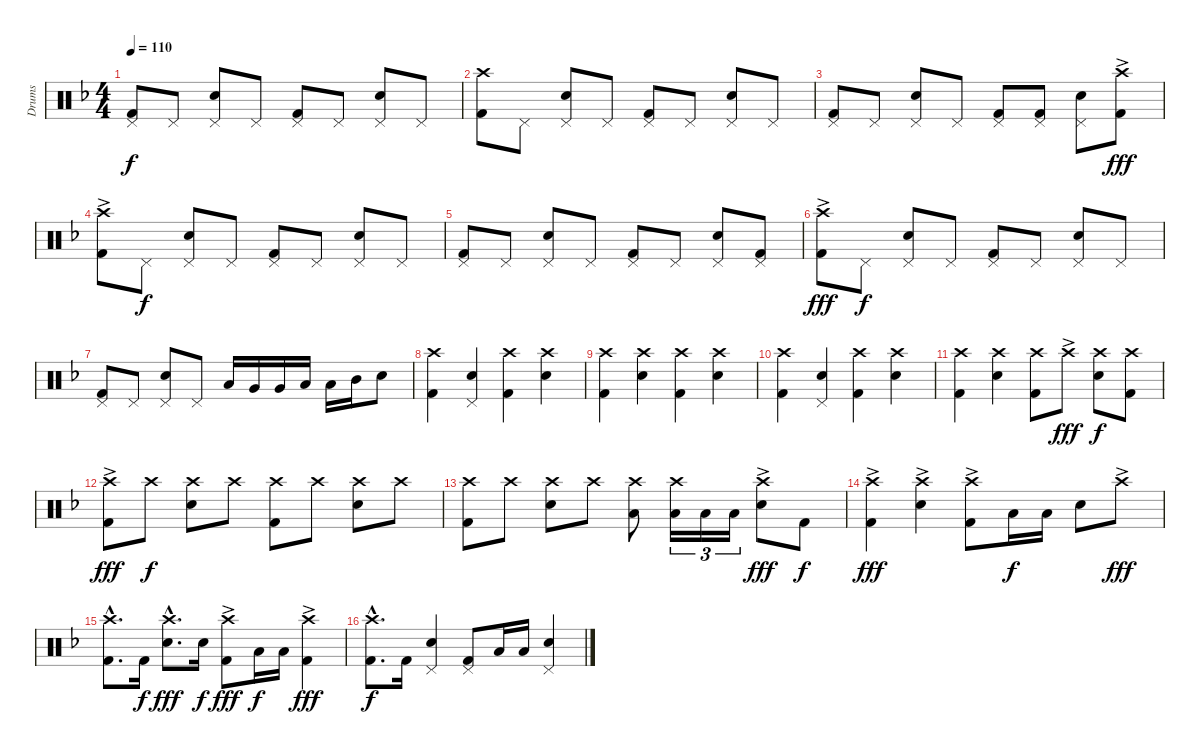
\track ("Drums" "Drums") {instrument percussion}
\staff {score}
\articulation defaults
\ts (4 4)
\tempo 110
\clef neutral
\ks f
("Kick (hit) 2" "Pedal Hi-Hat (hit)").8{dy f} "Pedal Hi-Hat (hit)".8 ("Snare (hit) 2" "Pedal Hi-Hat (hit)").8 "Pedal Hi-Hat (hit)".8 ("Kick (hit) 2" "Pedal Hi-Hat (hit)").8 "Pedal Hi-Hat (hit)".8 ("Snare (hit) 2" "Pedal Hi-Hat (hit)").8 "Pedal Hi-Hat (hit)".8 |
("Kick (hit) 2" "Crash high (hit)").8 "Pedal Hi-Hat (hit)".8 ("Snare (hit) 2" "Pedal Hi-Hat (hit)").8 "Pedal Hi-Hat (hit)".8 ("Kick (hit) 2" "Pedal Hi-Hat (hit)").8 "Pedal Hi-Hat (hit)".8 ("Snare (hit) 2" "Pedal Hi-Hat (hit)").8 "Pedal Hi-Hat (hit)".8 |
("Kick (hit) 2" "Pedal Hi-Hat (hit)").8 "Pedal Hi-Hat (hit)".8 ("Snare (hit) 2" "Pedal Hi-Hat (hit)").8 "Pedal Hi-Hat (hit)".8 ("Kick (hit) 2" "Pedal Hi-Hat (hit)").8 ("Kick (hit) 2" "Pedal Hi-Hat (hit)").8 ("Snare (hit) 2" "Pedal Hi-Hat (hit)").8 ("Kick (hit) 2" "Crash high (hit)"{ac}).8{dy fff} |
("Kick (hit) 2" "Crash high (hit)"{ac}).8 "Pedal Hi-Hat (hit)".8{dy f} ("Snare (hit) 2" "Pedal Hi-Hat (hit)").8 "Pedal Hi-Hat (hit)".8 ("Kick (hit) 2" "Pedal Hi-Hat (hit)").8 "Pedal Hi-Hat (hit)".8 ("Snare (hit) 2" "Pedal Hi-Hat (hit)").8 "Pedal Hi-Hat (hit)".8 |
("Kick (hit) 2" "Pedal Hi-Hat (hit)").8 "Pedal Hi-Hat (hit)".8 ("Snare (hit) 2" "Pedal Hi-Hat (hit)").8 "Pedal Hi-Hat (hit)".8 ("Kick (hit) 2" "Pedal Hi-Hat (hit)").8 "Pedal Hi-Hat (hit)".8 ("Snare (hit) 2" "Pedal Hi-Hat (hit)").8 ("Kick (hit) 2" "Pedal Hi-Hat (hit)").8 |
("Kick (hit) 2" "Crash high (hit)"{ac}).8{dy fff} "Pedal Hi-Hat (hit)".8{dy f} ("Snare (hit) 2" "Pedal Hi-Hat (hit)").8 "Pedal Hi-Hat (hit)".8 ("Kick (hit) 2" "Pedal Hi-Hat (hit)").8 "Pedal Hi-Hat (hit)".8 ("Snare (hit) 2" "Pedal Hi-Hat (hit)").8 "Pedal Hi-Hat (hit)".8 |
("Kick (hit) 2" "Pedal Hi-Hat (hit)").8 "Pedal Hi-Hat (hit)".8 ("Snare (hit) 2" "Pedal Hi-Hat (hit)").8 "Pedal Hi-Hat (hit)".8 "Low Floor Tom (hit)".16 "Very Low Tom (hit)".16 "Very Low Tom (hit)".16 "Low Tom (hit)".16 "Low Tom (hit)".16 "Mid Tom (hit)".16 "Snare (hit) 2".8 |
("Kick (hit) 2" "Crash high (hit)").4 ("Snare (hit) 2" "Pedal Hi-Hat (hit)").4 ("Kick (hit) 2" "Crash high (hit)").4 ("Snare (hit) 2" "Crash high (hit)").4 |
("Kick (hit) 2" "Crash high (hit)").4 ("Snare (hit) 2" "Crash high (hit)").4 ("Kick (hit) 2" "Crash high (hit)").4 ("Snare (hit) 2" "Crash high (hit)").4 |
("Kick (hit) 2" "Crash high (hit)").4 ("Snare (hit) 2" "Pedal Hi-Hat (hit)").4 ("Kick (hit) 2" "Crash high (hit)").4 ("Snare (hit) 2" "Crash high (hit)").4 |
("Kick (hit) 2" "Crash high (hit)").4 ("Snare (hit) 2" "Crash high (hit)").4 ("Kick (hit) 2" "Crash high (hit)").8 "Crash high (hit)"{ac}.8{dy fff} ("Snare (hit) 2" "Crash high (hit)").8{dy f} ("Kick (hit) 2" "Crash high (hit)").8 |
("Kick (hit) 2" "Crash high (hit)"{ac}).8{dy fff} "Crash high (hit)".8{dy f} ("Snare (hit) 2" "Crash high (hit)").8 "Crash high (hit)".8 ("Kick (hit) 2" "Crash high (hit)").8 "Crash high (hit)".8 ("Snare (hit) 2" "Crash high (hit)").8 "Crash high (hit)".8 |
("Kick (hit) 2" "Crash high (hit)").8 "Crash high (hit)".8 ("Snare (hit) 2" "Crash high (hit)").8 "Crash high (hit)".8 ("Low Floor Tom (hit)" "Crash high (hit)").8 ("Low Floor Tom (hit)" "Crash high (hit)").16{tu (3 2)} "Low Tom (hit)".16{tu (3 2)} "Low Tom (hit)".16{tu (3 2)} ("Snare (hit) 2" "Crash high (hit)"{ac}).8{dy fff} "Kick (hit) 2".8{dy f} |
("Kick (hit) 2" "Crash high (hit)"{ac}).4{dy fff} ("Snare (hit) 2" "Crash high (hit)"{ac}).4 ("Kick (hit) 2" "Crash high (hit)"{ac}).8 "Low Floor Tom (hit)".16{dy f} "Low Floor Tom (hit)".16 "Snare (hit) 2".8 "Crash high (hit)"{ac}.8{dy fff} |
("Kick (hit) 2"{hac} "Crash high (hit)"{hac}).8{d} "Kick (hit) 2".16{dy f} ("Snare (hit) 2"{hac} "Crash high (hit)"{hac}).8{d dy fff} "Snare (hit) 2".16{dy f} ("Kick (hit) 2" "Crash high (hit)"{ac}).8{dy fff} "Low Floor Tom (hit)".16{dy f} "Low Floor Tom (hit)".16 ("Kick (hit) 2" "Crash high (hit)"{ac}).4{dy fff} |
("Kick (hit) 2"{hac} "Crash high (hit)"{hac}).8{d dy f} "Kick (hit) 2".16 ("Snare (hit) 2" "Pedal Hi-Hat (hit)").4 ("Kick (hit) 2" "Pedal Hi-Hat (hit)").8 "Low Floor Tom (hit)".16 "Low Floor Tom (hit)".16 ("Snare (hit) 2" "Pedal Hi-Hat (hit)").4
